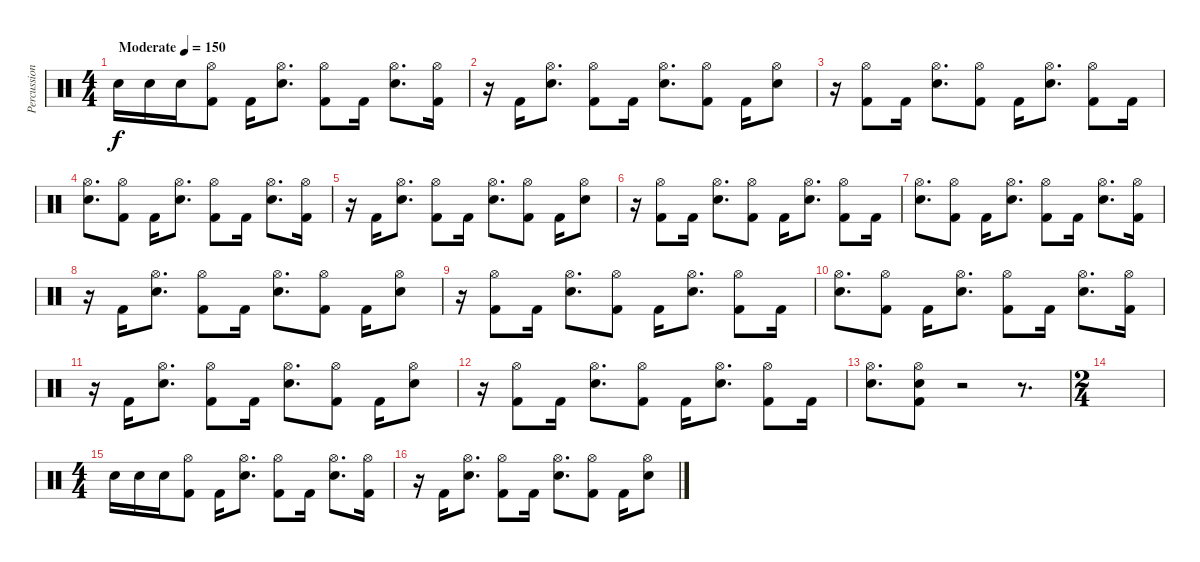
\track ("Percussion" "Percussion") {instrument percussion}
\staff {score}
\articulation defaults
\ts (4 4)
\tempo (150 "Moderate")
\clef neutral
\ks c "Electric Snare (hit)".16{dy f} "Electric Snare (hit)".16 "Electric Snare (hit)".16
("Hi-Hat (open)" "Kick (hit) 2").8 "Kick (hit) 2".16 ("Hi-Hat (open)" "Electric Snare (hit)").8{d} ("Hi-Hat (open)" "Kick (hit) 2").8 "Kick (hit) 2".16 ("Hi-Hat (open)" "Electric Snare (hit)").8{d} ("Hi-Hat (open)" "Kick (hit) 2").16 |
r.16 "Kick (hit) 2".16 ("Hi-Hat (open)" "Electric Snare (hit)").8{d} ("Hi-Hat (open)" "Kick (hit) 2").8 "Kick (hit) 2".16 ("Hi-Hat (open)" "Electric Snare (hit)").8{d} ("Hi-Hat (open)" "Kick (hit) 2").8 "Kick (hit) 2".16 ("Hi-Hat (open)" "Electric Snare (hit)").8 |
r.16 ("Hi-Hat (open)" "Kick (hit) 2").8 "Kick (hit) 2".16 ("Hi-Hat (open)" "Electric Snare (hit)").8{d} ("Hi-Hat (open)" "Kick (hit) 2").8 "Kick (hit) 2".16 ("Hi-Hat (open)" "Electric Snare (hit)").8{d} ("Hi-Hat (open)" "Kick (hit) 2").8 "Kick (hit) 2".16 |
("Hi-Hat (open)" "Electric Snare (hit)").8{d} ("Hi-Hat (open)" "Kick (hit) 2").8 "Kick (hit) 2".16 ("Hi-Hat (open)" "Electric Snare (hit)").8{d} ("Hi-Hat (open)" "Kick (hit) 2").8 "Kick (hit) 2".16 ("Hi-Hat (open)" "Electric Snare (hit)").8{d} ("Hi-Hat (open)" "Kick (hit) 2").16 |
r.16 "Kick (hit) 2".16 ("Hi-Hat (open)" "Electric Snare (hit)").8{d} ("Hi-Hat (open)" "Kick (hit) 2").8 "Kick (hit) 2".16 ("Hi-Hat (open)" "Electric Snare (hit)").8{d} ("Hi-Hat (open)" "Kick (hit) 2").8 "Kick (hit) 2".16 ("Hi-Hat (open)" "Electric Snare (hit)").8 |
r.16 ("Hi-Hat (open)" "Kick (hit) 2").8 "Kick (hit) 2".16 ("Hi-Hat (open)" "Electric Snare (hit)").8{d} ("Hi-Hat (open)" "Kick (hit) 2").8 "Kick (hit) 2".16 ("Hi-Hat (open)" "Electric Snare (hit)").8{d} ("Hi-Hat (open)" "Kick (hit) 2").8 "Kick (hit) 2".16 |
("Hi-Hat (open)" "Electric Snare (hit)").8{d} ("Hi-Hat (open)" "Kick (hit) 2").8 "Kick (hit) 2".16 ("Hi-Hat (open)" "Electric Snare (hit)").8{d} ("Hi-Hat (open)" "Kick (hit) 2").8 "Kick (hit) 2".16 ("Hi-Hat (open)" "Electric Snare (hit)").8{d} ("Hi-Hat (open)" "Kick (hit) 2").16 |
r.16 "Kick (hit) 2".16 ("Hi-Hat (open)" "Electric Snare (hit)").8{d} ("Hi-Hat (open)" "Kick (hit) 2").8 "Kick (hit) 2".16 ("Hi-Hat (open)" "Electric Snare (hit)").8{d} ("Hi-Hat (open)" "Kick (hit) 2").8 "Kick (hit) 2".16 ("Hi-Hat (open)" "Electric Snare (hit)").8 |
r.16 ("Hi-Hat (open)" "Kick (hit) 2").8 "Kick (hit) 2".16 ("Hi-Hat (open)" "Electric Snare (hit)").8{d} ("Hi-Hat (open)" "Kick (hit) 2").8 "Kick (hit) 2".16 ("Hi-Hat (open)" "Electric Snare (hit)").8{d} ("Hi-Hat (open)" "Kick (hit) 2").8 "Kick (hit) 2".16 |
("Hi-Hat (open)" "Electric Snare (hit)").8{d} ("Hi-Hat (open)" "Kick (hit) 2").8 "Kick (hit) 2".16 ("Hi-Hat (open)" "Electric Snare (hit)").8{d} ("Hi-Hat (open)" "Kick (hit) 2").8 "Kick (hit) 2".16 ("Hi-Hat (open)" "Electric Snare (hit)").8{d} ("Hi-Hat (open)" "Kick (hit) 2").16 |
r.16 "Kick (hit) 2".16 ("Hi-Hat (open)" "Electric Snare (hit)").8{d} ("Hi-Hat (open)" "Kick (hit) 2").8 "Kick (hit) 2".16 ("Hi-Hat (open)" "Electric Snare (hit)").8{d} ("Hi-Hat (open)" "Kick (hit) 2").8 "Kick (hit) 2".16 ("Hi-Hat (open)" "Electric Snare (hit)").8 |
r.16 ("Hi-Hat (open)" "Kick (hit) 2").8 "Kick (hit) 2".16 ("Hi-Hat (open)" "Electric Snare (hit)").8{d} ("Hi-Hat (open)" "Kick (hit) 2").8 "Kick (hit) 2".16 ("Hi-Hat (open)" "Electric Snare (hit)").8{d} ("Hi-Hat (open)" "Kick (hit) 2").8 "Kick (hit) 2".16 |
("Hi-Hat (open)" "Electric Snare (hit)").8{d} ("Hi-Hat (open)" "Electric Snare (hit)" "Kick (hit) 2").8 r.2 r.8{d} |
\ts (2 4)
|
\ts (4 4)
"Electric Snare (hit)".16 "Electric Snare (hit)".16 "Electric Snare (hit)".16 ("Hi-Hat (open)" "Kick (hit) 2").8 "Kick (hit) 2".16 ("Hi-Hat (open)" "Electric Snare (hit)").8{d} ("Hi-Hat (open)" "Kick (hit) 2").8 "Kick (hit) 2".16 ("Hi-Hat (open)" "Electric Snare (hit)").8{d} ("Hi-Hat (open)" "Kick (hit) 2").16 |
r.16 "Kick (hit) 2".16 ("Hi-Hat (open)" "Electric Snare (hit)").8{d} ("Hi-Hat (open)" "Kick (hit) 2").8 "Kick (hit) 2".16 ("Hi-Hat (open)" "Electric Snare (hit)").8{d} ("Hi-Hat (open)" "Kick (hit) 2").8 "Kick (hit) 2".16 ("Hi-Hat (open)" "Electric Snare (hit)").8
